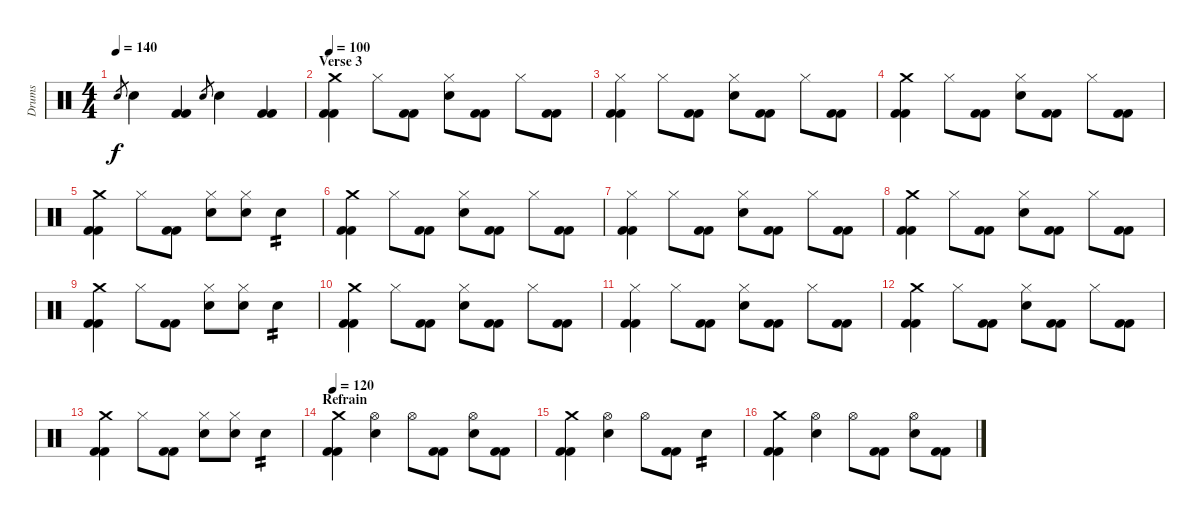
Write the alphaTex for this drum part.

\track ("Drums" "Drums") {instrument percussion}
\staff {score}
\articulation defaults
\ts (4 4)
\tempo 140
\clef neutral
\ks c "Electric Snare (hit)".8{gr dy f} "Electric Snare (hit)".4
("Kick (hit) 2" "Kick (hit) 2").4 "Electric Snare (hit)".8{gr} "Electric Snare (hit)".4 ("Kick (hit) 2" "Kick (hit) 2").4 |
\section ("" "Verse 3")
\tempo 100
("Kick (hit) 2" "Kick (hit) 2" "Crash medium (hit)").4 "Hi-Hat (closed)".8 ("Kick (hit) 2" "Kick (hit) 2").8 ("Electric Snare (hit)" "Hi-Hat (closed)").8 ("Kick (hit) 2" "Kick (hit) 2").8 "Hi-Hat (closed)".8 ("Kick (hit) 2" "Kick (hit) 2").8 |
("Kick (hit) 2" "Kick (hit) 2" "Hi-Hat (closed)").4 "Hi-Hat (closed)".8 ("Kick (hit) 2" "Kick (hit) 2").8 ("Electric Snare (hit)" "Hi-Hat (closed)").8 ("Kick (hit) 2" "Kick (hit) 2").8 "Hi-Hat (closed)".8 ("Kick (hit) 2" "Kick (hit) 2").8 |
("Kick (hit) 2" "Kick (hit) 2" "Crash medium (hit)").4 "Hi-Hat (closed)".8 ("Kick (hit) 2" "Kick (hit) 2").8 ("Electric Snare (hit)" "Hi-Hat (closed)").8 ("Kick (hit) 2" "Kick (hit) 2").8 "Hi-Hat (closed)".8 ("Kick (hit) 2" "Kick (hit) 2").8 |
("Kick (hit) 2" "Kick (hit) 2" "Crash medium (hit)").4 "Hi-Hat (closed)".8 ("Kick (hit) 2" "Kick (hit) 2").8 ("Electric Snare (hit)" "Hi-Hat (closed)").8 ("Hi-Hat (closed)" "Electric Snare (hit)").8 "Electric Snare (hit)".4{tp 2} |
("Kick (hit) 2" "Kick (hit) 2" "Crash medium (hit)").4 "Hi-Hat (closed)".8 ("Kick (hit) 2" "Kick (hit) 2").8 ("Electric Snare (hit)" "Hi-Hat (closed)").8 ("Kick (hit) 2" "Kick (hit) 2").8 "Hi-Hat (closed)".8 ("Kick (hit) 2" "Kick (hit) 2").8 |
("Kick (hit) 2" "Kick (hit) 2" "Hi-Hat (closed)").4 "Hi-Hat (closed)".8 ("Kick (hit) 2" "Kick (hit) 2").8 ("Electric Snare (hit)" "Hi-Hat (closed)").8 ("Kick (hit) 2" "Kick (hit) 2").8 "Hi-Hat (closed)".8 ("Kick (hit) 2" "Kick (hit) 2").8 |
("Kick (hit) 2" "Kick (hit) 2" "Crash medium (hit)").4 "Hi-Hat (closed)".8 ("Kick (hit) 2" "Kick (hit) 2").8 ("Electric Snare (hit)" "Hi-Hat (closed)").8 ("Kick (hit) 2" "Kick (hit) 2").8 "Hi-Hat (closed)".8 ("Kick (hit) 2" "Kick (hit) 2").8 |
("Kick (hit) 2" "Kick (hit) 2" "Crash medium (hit)").4 "Hi-Hat (closed)".8 ("Kick (hit) 2" "Kick (hit) 2").8 ("Electric Snare (hit)" "Hi-Hat (closed)").8 ("Hi-Hat (closed)" "Electric Snare (hit)").8 "Electric Snare (hit)".4{tp 2} |
("Kick (hit) 2" "Kick (hit) 2" "Crash medium (hit)").4 "Hi-Hat (closed)".8 ("Kick (hit) 2" "Kick (hit) 2").8 ("Electric Snare (hit)" "Hi-Hat (closed)").8 ("Kick (hit) 2" "Kick (hit) 2").8 "Hi-Hat (closed)".8 ("Kick (hit) 2" "Kick (hit) 2").8 |
("Kick (hit) 2" "Kick (hit) 2" "Hi-Hat (closed)").4 "Hi-Hat (closed)".8 ("Kick (hit) 2" "Kick (hit) 2").8 ("Electric Snare (hit)" "Hi-Hat (closed)").8 ("Kick (hit) 2" "Kick (hit) 2").8 "Hi-Hat (closed)".8 ("Kick (hit) 2" "Kick (hit) 2").8 |
("Kick (hit) 2" "Kick (hit) 2" "Crash medium (hit)").4 "Hi-Hat (closed)".8 ("Kick (hit) 2" "Kick (hit) 2").8 ("Electric Snare (hit)" "Hi-Hat (closed)").8 ("Kick (hit) 2" "Kick (hit) 2").8 "Hi-Hat (closed)".8 ("Kick (hit) 2" "Kick (hit) 2").8 |
("Kick (hit) 2" "Kick (hit) 2" "Crash medium (hit)").4 "Hi-Hat (closed)".8 ("Kick (hit) 2" "Kick (hit) 2").8 ("Electric Snare (hit)" "Hi-Hat (closed)").8 ("Hi-Hat (closed)" "Electric Snare (hit)").8 "Electric Snare (hit)".4{tp 2} |
\section ("" "Refrain")
\tempo 120
("Crash medium (hit)" "Kick (hit) 2" "Kick (hit) 2").4 ("Electric Snare (hit)" "Hi-Hat (open)").4 "Hi-Hat (open)".8 ("Kick (hit) 2" "Kick (hit) 2").8 ("Electric Snare (hit)" "Hi-Hat (open)").8 ("Kick (hit) 2" "Kick (hit) 2").8 |
("Crash medium (hit)" "Kick (hit) 2" "Kick (hit) 2").4 ("Electric Snare (hit)" "Hi-Hat (open)").4 "Hi-Hat (open)".8 ("Kick (hit) 2" "Kick (hit) 2").8 "Electric Snare (hit)".4{tp 2} |
("Crash medium (hit)" "Kick (hit) 2" "Kick (hit) 2").4 ("Electric Snare (hit)" "Hi-Hat (open)").4 "Hi-Hat (open)".8 ("Kick (hit) 2" "Kick (hit) 2").8 ("Electric Snare (hit)" "Hi-Hat (open)").8 ("Kick (hit) 2" "Kick (hit) 2").8
